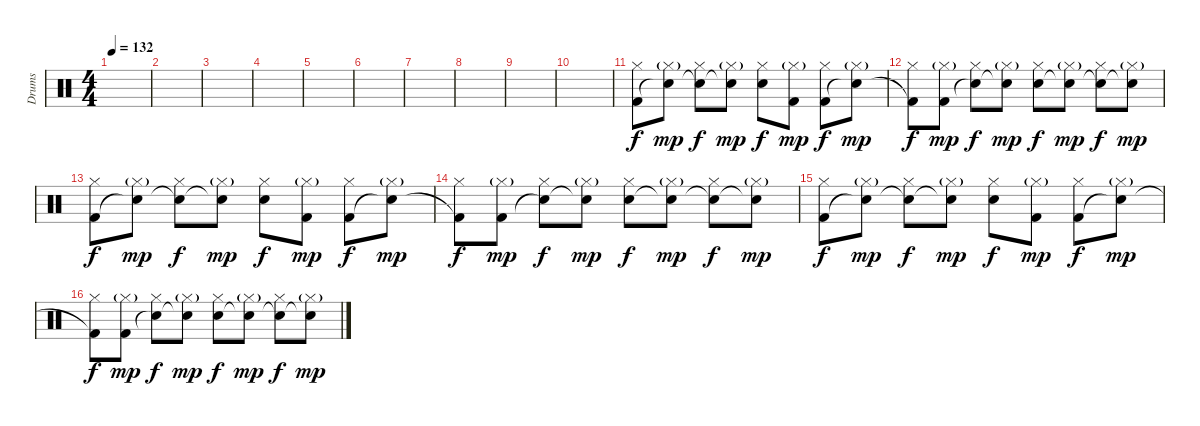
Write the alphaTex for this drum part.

\track ("Drums" "Drums") {instrument percussion}
\staff {score}
\articulation defaults
\ts (4 4)
\tempo 132
\clef neutral
\ks c
|
|
|
|
|
|
|
|
|
|
("Kick (hit) 2" "Hi-Hat (closed)").8 ("Snare (hit)"{t} "Hi-Hat (closed)"{g}).8{dy mp} ("Snare (hit)"{t} "Hi-Hat (closed)").8{dy f} ("Snare (hit) 2"{t} "Hi-Hat (closed)"{g}).8{dy mp} ("Electric Snare (hit)" "Hi-Hat (closed)").8{dy f} ("Kick (hit) 2" "Hi-Hat (closed)"{g}).8{dy mp} ("Kick (hit) 2" "Hi-Hat (closed)").8{dy f} ("Snare (hit)"{t} "Hi-Hat (closed)"{g}).8{dy mp} |
("Kick (hit) 2"{t} "Hi-Hat (closed)").8{dy f} ("Kick (hit) 2" "Hi-Hat (closed)"{g}).8{dy mp} ("Snare (hit)"{t} "Hi-Hat (closed)").8{dy f} ("Snare (hit)"{t} "Hi-Hat (closed)"{g}).8{dy mp} ("Electric Snare (hit)" "Hi-Hat (closed)").8{dy f} ("Snare (hit)"{t} "Hi-Hat (closed)"{g}).8{dy mp} ("Snare (hit)"{t} "Hi-Hat (closed)").8{dy f} ("Snare (hit)"{t} "Hi-Hat (closed)"{g}).8{dy mp} |
("Kick (hit) 2" "Hi-Hat (closed)").8{dy f} ("Snare (hit)"{t} "Hi-Hat (closed)"{g}).8{dy mp} ("Snare (hit)"{t} "Hi-Hat (closed)").8{dy f} ("Snare (hit) 2"{t} "Hi-Hat (closed)"{g}).8{dy mp} ("Electric Snare (hit)" "Hi-Hat (closed)").8{dy f} ("Kick (hit) 2" "Hi-Hat (closed)"{g}).8{dy mp} ("Kick (hit) 2" "Hi-Hat (closed)").8{dy f} ("Snare (hit)"{t} "Hi-Hat (closed)"{g}).8{dy mp} |
("Kick (hit) 2"{t} "Hi-Hat (closed)").8{dy f} ("Kick (hit) 2" "Hi-Hat (closed)"{g}).8{dy mp} ("Snare (hit)"{t} "Hi-Hat (closed)").8{dy f} ("Snare (hit)"{t} "Hi-Hat (closed)"{g}).8{dy mp} ("Electric Snare (hit)" "Hi-Hat (closed)").8{dy f} ("Snare (hit)"{t} "Hi-Hat (closed)"{g}).8{dy mp} ("Snare (hit)"{t} "Hi-Hat (closed)").8{dy f} ("Snare (hit)"{t} "Hi-Hat (closed)"{g}).8{dy mp} |
("Kick (hit) 2" "Hi-Hat (closed)").8{dy f} ("Snare (hit)"{t} "Hi-Hat (closed)"{g}).8{dy mp} ("Snare (hit)"{t} "Hi-Hat (closed)").8{dy f} ("Snare (hit) 2"{t} "Hi-Hat (closed)"{g}).8{dy mp} ("Electric Snare (hit)" "Hi-Hat (closed)").8{dy f} ("Kick (hit) 2" "Hi-Hat (closed)"{g}).8{dy mp} ("Kick (hit) 2" "Hi-Hat (closed)").8{dy f} ("Snare (hit)"{t} "Hi-Hat (closed)"{g}).8{dy mp} |
("Kick (hit) 2"{t} "Hi-Hat (closed)").8{dy f} ("Kick (hit) 2" "Hi-Hat (closed)"{g}).8{dy mp} ("Snare (hit)"{t} "Hi-Hat (closed)").8{dy f} ("Snare (hit)"{t} "Hi-Hat (closed)"{g}).8{dy mp} ("Electric Snare (hit)" "Hi-Hat (closed)").8{dy f} ("Snare (hit)"{t} "Hi-Hat (closed)"{g}).8{dy mp} ("Snare (hit)"{t} "Hi-Hat (closed)").8{dy f} ("Snare (hit)"{t} "Hi-Hat (closed)"{g}).8{dy mp}
